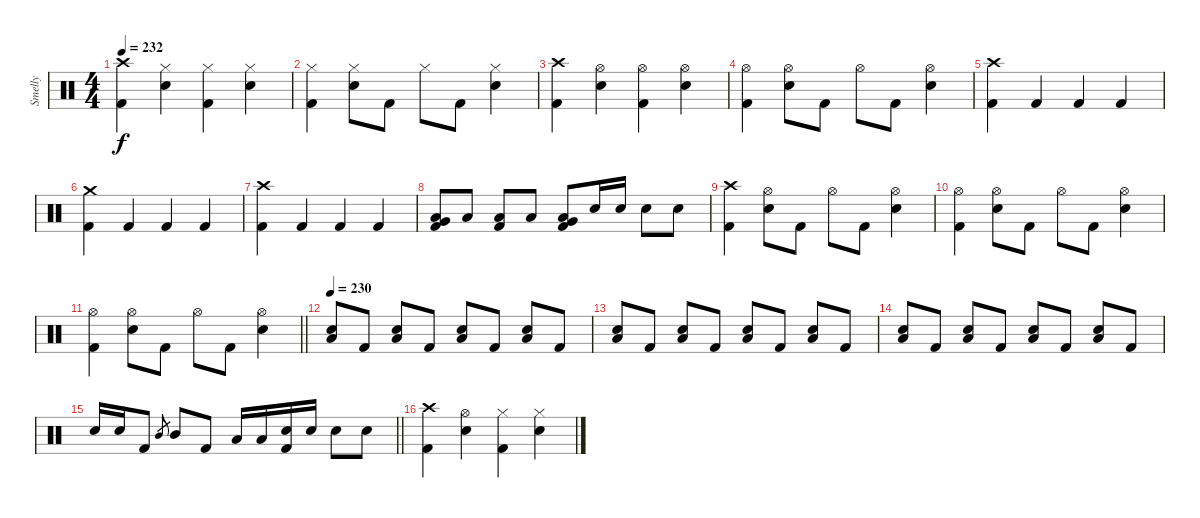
\track ("Smelly" "Smelly") {instrument percussion}
\staff {score}
\articulation defaults
\ts (4 4)
\tempo 232
\clef neutral
\ks c
("Crash high (hit)" "Kick (hit) 2").4{dy f} ("Hi-Hat (closed)" "Electric Snare (hit)").4 ("Hi-Hat (closed)" "Kick (hit) 2").4 ("Hi-Hat (closed)" "Electric Snare (hit)").4 |
("Hi-Hat (closed)" "Kick (hit) 2").4 ("Hi-Hat (closed)" "Electric Snare (hit)").8 "Kick (hit) 2".8 "Hi-Hat (closed)".8 "Kick (hit) 2".8 ("Hi-Hat (closed)" "Electric Snare (hit)").4 |
("Crash high (hit)" "Kick (hit) 2").4 ("Hi-Hat (open)" "Electric Snare (hit)").4 ("Hi-Hat (open)" "Kick (hit) 2").4 ("Hi-Hat (open)" "Electric Snare (hit)").4 |
("Hi-Hat (open)" "Kick (hit) 2").4 ("Hi-Hat (open)" "Electric Snare (hit)").8 "Kick (hit) 2".8 "Hi-Hat (open)".8 "Kick (hit) 2".8 ("Hi-Hat (open)" "Electric Snare (hit)").4 |
("Crash high (hit)" "Kick (hit) 2").4 "Kick (hit) 2".4 "Kick (hit) 2".4 "Kick (hit) 2".4 |
("Crash medium (hit)" "Kick (hit) 2").4 "Kick (hit) 2".4 "Kick (hit) 2".4 "Kick (hit) 2".4 |
("Crash high (hit)" "Kick (hit) 2").4 "Kick (hit) 2".4 "Kick (hit) 2".4 "Kick (hit) 2".4 |
("Very Low Tom (hit)" "Low Floor Tom (hit)" "Kick (hit) 2").8 "Low Floor Tom (hit)".8 ("Low Floor Tom (hit)" "Kick (hit) 2").8 "Low Floor Tom (hit)".8 ("Very Low Tom (hit)" "Low Floor Tom (hit)" "Kick (hit) 2").8 "Electric Snare (hit)".16 "Electric Snare (hit)".16 "Electric Snare (hit)".8 "Electric Snare (hit)".8 |
("Crash high (hit)" "Kick (hit) 2").4 ("Hi-Hat (open)" "Electric Snare (hit)").8 "Kick (hit) 2".8 "Hi-Hat (open)".8 "Kick (hit) 2".8 ("Hi-Hat (open)" "Electric Snare (hit)").4 |
("Hi-Hat (open)" "Kick (hit) 2").4 ("Hi-Hat (open)" "Electric Snare (hit)").8 "Kick (hit) 2".8 "Hi-Hat (open)".8 "Kick (hit) 2".8 ("Hi-Hat (open)" "Electric Snare (hit)").4 |
\barLineRight lightlight
("Hi-Hat (open)" "Kick (hit) 2").4 ("Hi-Hat (open)" "Electric Snare (hit)").8 "Kick (hit) 2".8 "Hi-Hat (open)".8 "Kick (hit) 2".8 ("Hi-Hat (open)" "Electric Snare (hit)").4 |
\section ("" "")
\tempo 230
("Electric Snare (hit)" "Low Floor Tom (hit)").8 "Kick (hit) 2".8 ("Electric Snare (hit)" "Low Floor Tom (hit)").8 "Kick (hit) 2".8 ("Electric Snare (hit)" "Low Floor Tom (hit)").8 "Kick (hit) 2".8 ("Electric Snare (hit)" "Low Floor Tom (hit)").8 "Kick (hit) 2".8 |
("Electric Snare (hit)" "Low Floor Tom (hit)").8 "Kick (hit) 2".8 ("Electric Snare (hit)" "Low Floor Tom (hit)").8 "Kick (hit) 2".8 ("Electric Snare (hit)" "Low Floor Tom (hit)").8 "Kick (hit) 2".8 ("Electric Snare (hit)" "Low Floor Tom (hit)").8 "Kick (hit) 2".8 |
("Electric Snare (hit)" "Low Floor Tom (hit)").8 "Kick (hit) 2".8 ("Electric Snare (hit)" "Low Floor Tom (hit)").8 "Kick (hit) 2".8 ("Electric Snare (hit)" "Low Floor Tom (hit)").8 "Kick (hit) 2".8 ("Electric Snare (hit)" "Low Floor Tom (hit)").8 "Kick (hit) 2".8 |
\barLineRight lightlight "Electric Snare (hit)".16 "Electric Snare (hit)".16 "Kick (hit) 2".8 "Mid Tom (hit)".8{gr} "Mid Tom (hit)".8 "Kick (hit) 2".8 "Low Tom (hit)".16 "Low Tom (hit)".16
("Electric Snare (hit)" "Kick (hit) 2").16 "Electric Snare (hit)".16 "Electric Snare (hit)".8 "Electric Snare (hit)".8 |
\section ("" "")
("Crash high (hit)" "Kick (hit) 2").4 ("Hi-Hat (open)" "Electric Snare (hit)").4 ("Hi-Hat (closed)" "Kick (hit) 2").4 ("Hi-Hat (closed)" "Electric Snare (hit)").4
